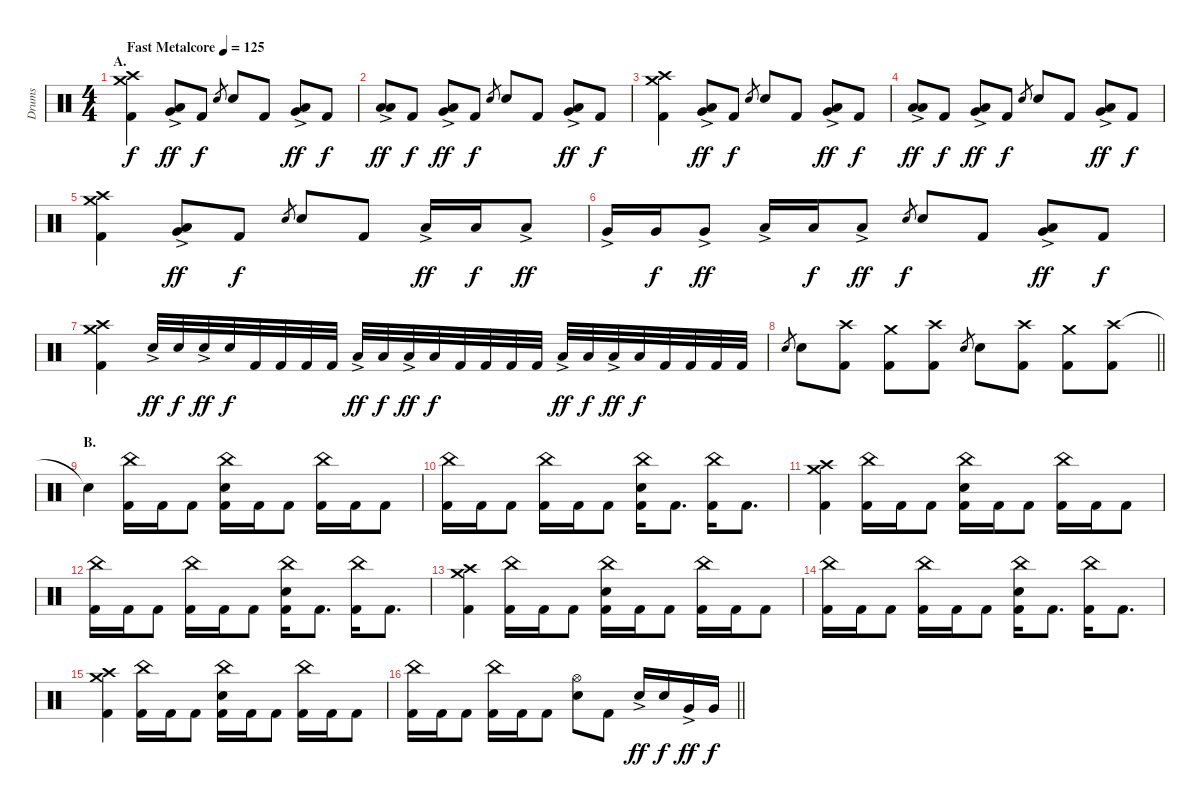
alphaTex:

\track ("Drums" "Drums") {instrument percussion}
\staff {score}
\articulation defaults
\ts (4 4)
\section ("" "A.")
\tempo (125 "Fast Metalcore")
\clef neutral
\ks c
("Crash medium (hit)" "Crash high (hit)" "Kick (hit) 2").4{dy f} ("Very Low Tom (hit)" "Low Floor Tom (hit)"{ac}).8{bu 120 dy ff} "Kick (hit) 2".8{dy f} "Electric Snare (hit)".8{gr} "Electric Snare (hit)".8 "Kick (hit) 2".8 ("Very Low Tom (hit)" "Low Floor Tom (hit)"{ac}).8{bu 120 dy ff} "Kick (hit) 2".8{dy f} |
("Low Tom (hit)" "Low Floor Tom (hit)"{ac}).8{bu 120 dy ff} "Kick (hit) 2".8{dy f} ("Very Low Tom (hit)" "Low Floor Tom (hit)"{ac}).8{bu 120 dy ff} "Kick (hit) 2".8{dy f} "Electric Snare (hit)".8{gr} "Electric Snare (hit)".8 "Kick (hit) 2".8 ("Very Low Tom (hit)" "Low Floor Tom (hit)"{ac}).8{bu 120 dy ff} "Kick (hit) 2".8{dy f} |
("Crash medium (hit)" "Crash high (hit)" "Kick (hit) 2").4 ("Very Low Tom (hit)" "Low Floor Tom (hit)"{ac}).8{bu 120 dy ff} "Kick (hit) 2".8{dy f} "Electric Snare (hit)".8{gr} "Electric Snare (hit)".8 "Kick (hit) 2".8 ("Very Low Tom (hit)" "Low Floor Tom (hit)"{ac}).8{bu 120 dy ff} "Kick (hit) 2".8{dy f} |
("Low Tom (hit)" "Low Floor Tom (hit)"{ac}).8{bu 120 dy ff} "Kick (hit) 2".8{dy f} ("Very Low Tom (hit)" "Low Floor Tom (hit)"{ac}).8{bu 120 dy ff} "Kick (hit) 2".8{dy f} "Electric Snare (hit)".8{gr} "Electric Snare (hit)".8 "Kick (hit) 2".8 ("Very Low Tom (hit)" "Low Floor Tom (hit)"{ac}).8{bu 120 dy ff} "Kick (hit) 2".8{dy f} |
("Crash medium (hit)" "Crash high (hit)" "Kick (hit) 2").4 ("Very Low Tom (hit)" "Low Floor Tom (hit)"{ac}).8{bu 120 dy ff} "Kick (hit) 2".8{dy f} "Electric Snare (hit)".8{gr} "Electric Snare (hit)".8 "Kick (hit) 2".8 "Low Tom (hit)"{ac}.16{dy ff} "Low Tom (hit)".16{dy f} "Low Tom (hit)"{ac}.8{dy ff} |
"Very Low Tom (hit)"{ac}.16 "Very Low Tom (hit)".16{dy f} "Very Low Tom (hit)"{ac}.8{dy ff} "Low Floor Tom (hit)"{ac}.16 "Low Floor Tom (hit)".16{dy f} "Low Floor Tom (hit)"{ac}.8{dy ff} "Electric Snare (hit)".8{gr dy f} "Electric Snare (hit)".8 "Kick (hit) 2".8 ("Very Low Tom (hit)" "Low Floor Tom (hit)"{ac}).8{bu 120 dy ff} "Kick (hit) 2".8{dy f} |
("Crash medium (hit)" "Crash high (hit)" "Kick (hit) 2").4 "Electric Snare (hit)"{ac}.32{dy ff} "Electric Snare (hit)".32{dy f} "Electric Snare (hit)"{ac}.32{dy ff} "Electric Snare (hit)".32{dy f} "Kick (hit) 2".32 "Kick (hit) 2".32 "Kick (hit) 2".32 "Kick (hit) 2".32 "Low Tom (hit)"{ac}.32{dy ff} "Low Tom (hit)".32{dy f} "Low Tom (hit)"{ac}.32{dy ff} "Low Tom (hit)".32{dy f} "Kick (hit) 2".32 "Kick (hit) 2".32 "Kick (hit) 2".32 "Kick (hit) 2".32 "Low Floor Tom (hit)"{ac}.32{dy ff} "Low Floor Tom (hit)".32{dy f} "Low Floor Tom (hit)"{ac}.32{dy ff} "Low Floor Tom (hit)".32{dy f} "Kick (hit) 2".32 "Kick (hit) 2".32 "Kick (hit) 2".32 "Kick (hit) 2".32 |
\barLineRight lightlight "Electric Snare (hit)".8{gr} "Electric Snare (hit)".8
("Crash high (hit)" "Kick (hit) 2").8 ("Crash medium (hit)" "Kick (hit) 2").8 ("Crash high (hit)" "Kick (hit) 2").8 "Electric Snare (hit)".8{gr} "Electric Snare (hit)".8 ("Crash high (hit)" "Kick (hit) 2").8 ("Crash medium (hit)" "Kick (hit) 2").8 ("Crash high (hit)" "Kick (hit) 2").8 |
\section ("" "B.")
"Snare (hit)"{t}.4 ("China (hit)" "Kick (hit) 2").16 "Kick (hit) 2".16 "Kick (hit) 2".8 ("China (hit)" "Electric Snare (hit)" "Kick (hit) 2").16 "Kick (hit) 2".16 "Kick (hit) 2".8 ("China (hit)" "Kick (hit) 2").16 "Kick (hit) 2".16 "Kick (hit) 2".8 |
("China (hit)" "Kick (hit) 2").16 "Kick (hit) 2".16 "Kick (hit) 2".8 ("China (hit)" "Kick (hit) 2").16 "Kick (hit) 2".16 "Kick (hit) 2".8 ("China (hit)" "Electric Snare (hit)" "Kick (hit) 2").16 "Kick (hit) 2".8{d} ("China (hit)" "Kick (hit) 2").16 "Kick (hit) 2".8{d} |
("Crash medium (hit)" "Crash high (hit)" "Kick (hit) 2").4 ("China (hit)" "Kick (hit) 2").16 "Kick (hit) 2".16 "Kick (hit) 2".8 ("China (hit)" "Electric Snare (hit)" "Kick (hit) 2").16 "Kick (hit) 2".16 "Kick (hit) 2".8 ("China (hit)" "Kick (hit) 2").16 "Kick (hit) 2".16 "Kick (hit) 2".8 |
("China (hit)" "Kick (hit) 2").16 "Kick (hit) 2".16 "Kick (hit) 2".8 ("China (hit)" "Kick (hit) 2").16 "Kick (hit) 2".16 "Kick (hit) 2".8 ("China (hit)" "Electric Snare (hit)" "Kick (hit) 2").16 "Kick (hit) 2".8{d} ("China (hit)" "Kick (hit) 2").16 "Kick (hit) 2".8{d} |
("Crash medium (hit)" "Crash high (hit)" "Kick (hit) 2").4 ("China (hit)" "Kick (hit) 2").16 "Kick (hit) 2".16 "Kick (hit) 2".8 ("China (hit)" "Electric Snare (hit)" "Kick (hit) 2").16 "Kick (hit) 2".16 "Kick (hit) 2".8 ("China (hit)" "Kick (hit) 2").16 "Kick (hit) 2".16 "Kick (hit) 2".8 |
("China (hit)" "Kick (hit) 2").16 "Kick (hit) 2".16 "Kick (hit) 2".8 ("China (hit)" "Kick (hit) 2").16 "Kick (hit) 2".16 "Kick (hit) 2".8 ("China (hit)" "Electric Snare (hit)" "Kick (hit) 2").16 "Kick (hit) 2".8{d} ("China (hit)" "Kick (hit) 2").16 "Kick (hit) 2".8{d} |
("Crash medium (hit)" "Crash high (hit)" "Kick (hit) 2").4 ("China (hit)" "Kick (hit) 2").16 "Kick (hit) 2".16 "Kick (hit) 2".8 ("China (hit)" "Electric Snare (hit)" "Kick (hit) 2").16 "Kick (hit) 2".16 "Kick (hit) 2".8 ("China (hit)" "Kick (hit) 2").16 "Kick (hit) 2".16 "Kick (hit) 2".8 |
\barLineRight lightlight
("China (hit)" "Kick (hit) 2").16 "Kick (hit) 2".16 "Kick (hit) 2".8 ("China (hit)" "Kick (hit) 2").16 "Kick (hit) 2".16 "Kick (hit) 2".8 ("Hi-Hat (open)" "Electric Snare (hit)").8 "Kick (hit) 2".8 "Electric Snare (hit)"{ac}.16{dy ff} "Electric Snare (hit)".16{dy f} "Very Low Tom (hit)"{ac}.16{dy ff} "Very Low Tom (hit)".16{dy f}
